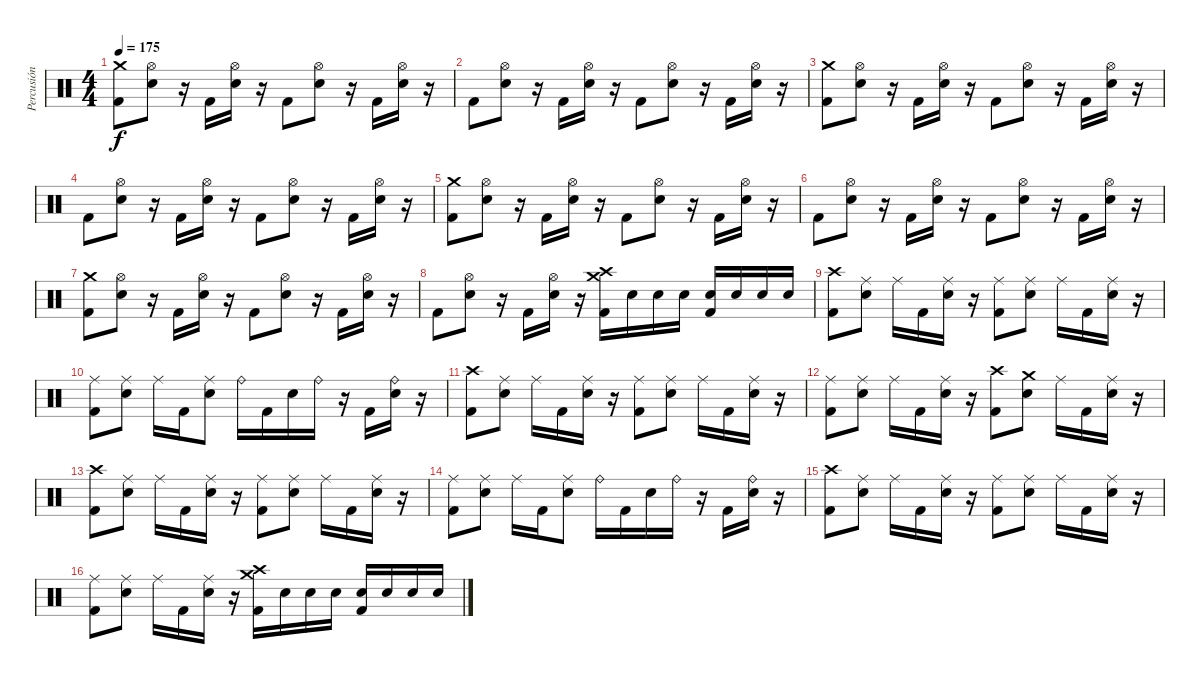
\track ("Percusión" "Percusión") {instrument percussion}
\staff {score}
\articulation defaults
\ts (4 4)
\tempo 175
\clef neutral
\ks c
("Crash medium (hit)" "Kick (hit) 2").8{dy f} ("Hi-Hat (open)" "Electric Snare (hit)").8 r.16 "Kick (hit) 2".16 ("Hi-Hat (open)" "Electric Snare (hit)").16 r.16 "Kick (hit) 2".8 ("Hi-Hat (open)" "Electric Snare (hit)").8 r.16 "Kick (hit) 2".16 ("Hi-Hat (open)" "Electric Snare (hit)").16 r.16 |
"Kick (hit) 2".8 ("Hi-Hat (open)" "Electric Snare (hit)").8 r.16 "Kick (hit) 2".16 ("Hi-Hat (open)" "Electric Snare (hit)").16 r.16 "Kick (hit) 2".8 ("Hi-Hat (open)" "Electric Snare (hit)").8 r.16 "Kick (hit) 2".16 ("Hi-Hat (open)" "Electric Snare (hit)").16 r.16 |
("Crash medium (hit)" "Kick (hit) 2").8 ("Hi-Hat (open)" "Electric Snare (hit)").8 r.16 "Kick (hit) 2".16 ("Hi-Hat (open)" "Electric Snare (hit)").16 r.16 "Kick (hit) 2".8 ("Hi-Hat (open)" "Electric Snare (hit)").8 r.16 "Kick (hit) 2".16 ("Hi-Hat (open)" "Electric Snare (hit)").16 r.16 |
"Kick (hit) 2".8 ("Hi-Hat (open)" "Electric Snare (hit)").8 r.16 "Kick (hit) 2".16 ("Hi-Hat (open)" "Electric Snare (hit)").16 r.16 "Kick (hit) 2".8 ("Hi-Hat (open)" "Electric Snare (hit)").8 r.16 "Kick (hit) 2".16 ("Hi-Hat (open)" "Electric Snare (hit)").16 r.16 |
("Crash medium (hit)" "Kick (hit) 2").8 ("Hi-Hat (open)" "Electric Snare (hit)").8 r.16 "Kick (hit) 2".16 ("Hi-Hat (open)" "Electric Snare (hit)").16 r.16 "Kick (hit) 2".8 ("Hi-Hat (open)" "Electric Snare (hit)").8 r.16 "Kick (hit) 2".16 ("Hi-Hat (open)" "Electric Snare (hit)").16 r.16 |
"Kick (hit) 2".8 ("Hi-Hat (open)" "Electric Snare (hit)").8 r.16 "Kick (hit) 2".16 ("Hi-Hat (open)" "Electric Snare (hit)").16 r.16 "Kick (hit) 2".8 ("Hi-Hat (open)" "Electric Snare (hit)").8 r.16 "Kick (hit) 2".16 ("Hi-Hat (open)" "Electric Snare (hit)").16 r.16 |
("Crash medium (hit)" "Kick (hit) 2").8 ("Hi-Hat (open)" "Electric Snare (hit)").8 r.16 "Kick (hit) 2".16 ("Hi-Hat (open)" "Electric Snare (hit)").16 r.16 "Kick (hit) 2".8 ("Hi-Hat (open)" "Electric Snare (hit)").8 r.16 "Kick (hit) 2".16 ("Hi-Hat (open)" "Electric Snare (hit)").16 r.16 |
"Kick (hit) 2".8 ("Hi-Hat (open)" "Electric Snare (hit)").8 r.16 "Kick (hit) 2".16 ("Hi-Hat (open)" "Electric Snare (hit)").16 r.16 ("Crash medium (hit)" "Crash high (hit)" "Kick (hit) 2").16 "Electric Snare (hit)".16 "Electric Snare (hit)".16 "Electric Snare (hit)".16 ("Electric Snare (hit)" "Kick (hit) 2").16 "Electric Snare (hit)".16 "Electric Snare (hit)".16 "Electric Snare (hit)".16 |
("Crash high (hit)" "Kick (hit) 2").8 ("Ride (middle)" "Electric Snare (hit)").8 "Ride (middle)".16 "Kick (hit) 2".16 ("Ride (middle)" "Electric Snare (hit)").16 r.16 ("Ride (middle)" "Kick (hit) 2").8 ("Ride (middle)" "Electric Snare (hit)").8 "Ride (middle)".16 "Kick (hit) 2".16 ("Ride (middle)" "Electric Snare (hit)").16 r.16 |
("Ride (middle)" "Kick (hit) 2").8 ("Ride (middle)" "Electric Snare (hit)").8 "Ride (middle)".16 "Kick (hit) 2".16 ("Ride (middle)" "Electric Snare (hit)").8 "Ride (bell)".16 "Kick (hit) 2".16 "Electric Snare (hit)".16 "Ride (bell)".16 r.16 "Kick (hit) 2".16 ("Ride (bell)" "Electric Snare (hit)").16 r.16 |
("Crash high (hit)" "Kick (hit) 2").8 ("Ride (middle)" "Electric Snare (hit)").8 "Ride (middle)".16 "Kick (hit) 2".16 ("Ride (middle)" "Electric Snare (hit)").16 r.16 ("Ride (middle)" "Kick (hit) 2").8 ("Ride (middle)" "Electric Snare (hit)").8 "Ride (middle)".16 "Kick (hit) 2".16 ("Ride (middle)" "Electric Snare (hit)").16 r.16 |
("Ride (middle)" "Kick (hit) 2").8 ("Ride (middle)" "Electric Snare (hit)").8 "Ride (middle)".16 "Kick (hit) 2".16 ("Ride (middle)" "Electric Snare (hit)").16 r.16 ("Crash high (hit)" "Kick (hit) 2").8 ("Crash medium (hit)" "Electric Snare (hit)").8 "Ride (middle)".16 "Kick (hit) 2".16 ("Ride (middle)" "Electric Snare (hit)").16 r.16 |
("Crash high (hit)" "Kick (hit) 2").8 ("Ride (middle)" "Electric Snare (hit)").8 "Ride (middle)".16 "Kick (hit) 2".16 ("Ride (middle)" "Electric Snare (hit)").16 r.16 ("Ride (middle)" "Kick (hit) 2").8 ("Ride (middle)" "Electric Snare (hit)").8 "Ride (middle)".16 "Kick (hit) 2".16 ("Ride (middle)" "Electric Snare (hit)").16 r.16 |
("Ride (middle)" "Kick (hit) 2").8 ("Ride (middle)" "Electric Snare (hit)").8 "Ride (middle)".16 "Kick (hit) 2".16 ("Ride (middle)" "Electric Snare (hit)").8 "Ride (bell)".16 "Kick (hit) 2".16 "Electric Snare (hit)".16 "Ride (bell)".16 r.16 "Kick (hit) 2".16 ("Ride (bell)" "Electric Snare (hit)").16 r.16 |
("Crash high (hit)" "Kick (hit) 2").8 ("Ride (middle)" "Electric Snare (hit)").8 "Ride (middle)".16 "Kick (hit) 2".16 ("Ride (middle)" "Electric Snare (hit)").16 r.16 ("Ride (middle)" "Kick (hit) 2").8 ("Ride (middle)" "Electric Snare (hit)").8 "Ride (middle)".16 "Kick (hit) 2".16 ("Ride (middle)" "Electric Snare (hit)").16 r.16 |
("Ride (middle)" "Kick (hit) 2").8 ("Ride (middle)" "Electric Snare (hit)").8 "Ride (middle)".16 "Kick (hit) 2".16 ("Ride (middle)" "Electric Snare (hit)").16 r.16 ("Crash medium (hit)" "Crash high (hit)" "Kick (hit) 2").16 "Electric Snare (hit)".16 "Electric Snare (hit)".16 "Electric Snare (hit)".16 ("Electric Snare (hit)" "Kick (hit) 2").16 "Electric Snare (hit)".16 "Electric Snare (hit)".16 "Electric Snare (hit)".16
